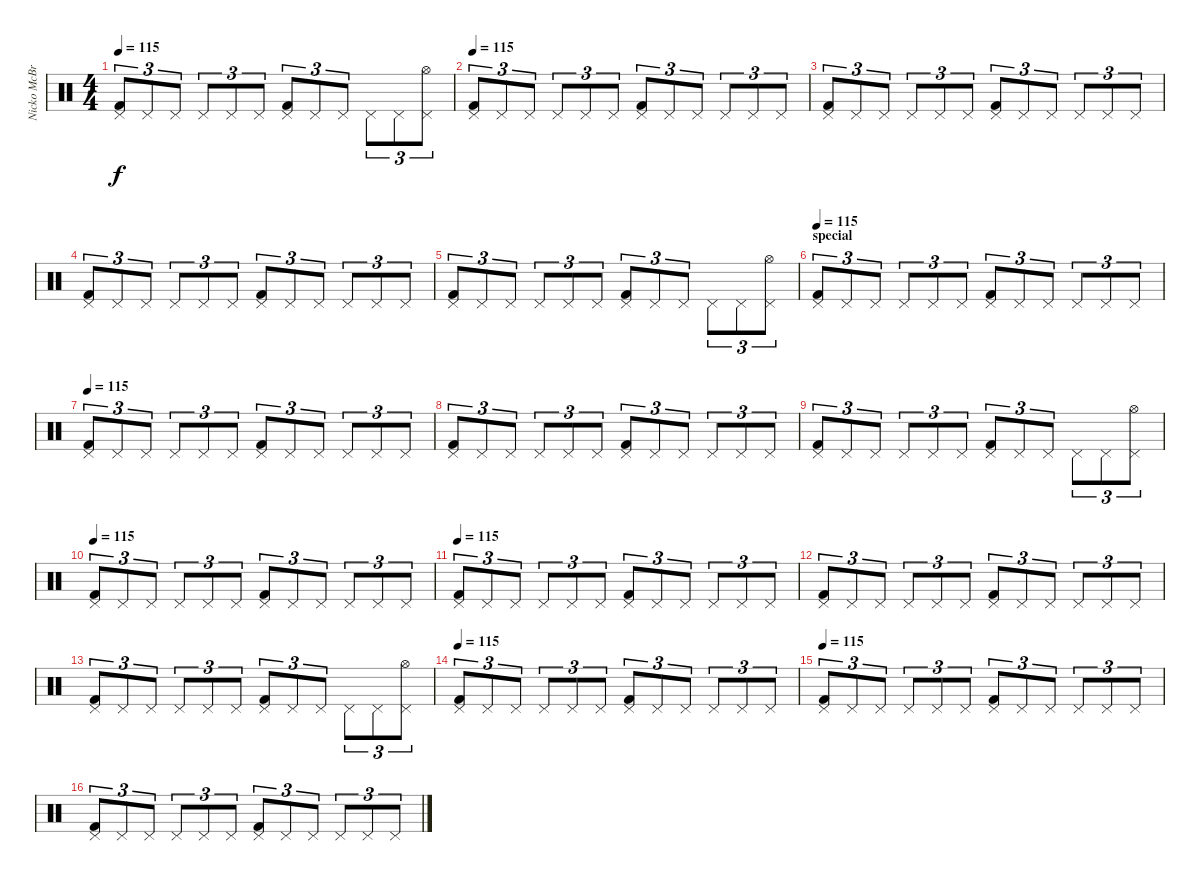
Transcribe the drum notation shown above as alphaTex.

\track ("Nicko McBrain" "Nicko McBr") {instrument percussion}
\staff {score}
\articulation defaults
\ts (4 4)
\tempo 115
\clef neutral
\ks c
("Pedal Hi-Hat (hit)" "Kick (hit) 2").8{tu (3 2) dy f} "Pedal Hi-Hat (hit)".8{tu (3 2)} "Pedal Hi-Hat (hit)".8{tu (3 2)} "Pedal Hi-Hat (hit)".8{tu (3 2)} "Pedal Hi-Hat (hit)".8{tu (3 2)} "Pedal Hi-Hat (hit)".8{tu (3 2)} ("Pedal Hi-Hat (hit)" "Kick (hit) 2").8{tu (3 2)} "Pedal Hi-Hat (hit)".8{tu (3 2)} "Pedal Hi-Hat (hit)".8{tu (3 2)} "Pedal Hi-Hat (hit)".8{tu (3 2)} "Pedal Hi-Hat (hit)".8{tu (3 2)} ("Pedal Hi-Hat (hit)" "Hi-Hat (open)").8{tu (3 2)} |
\tempo 115
("Pedal Hi-Hat (hit)" "Kick (hit) 2").8{tu (3 2)} "Pedal Hi-Hat (hit)".8{tu (3 2)} "Pedal Hi-Hat (hit)".8{tu (3 2)} "Pedal Hi-Hat (hit)".8{tu (3 2)} "Pedal Hi-Hat (hit)".8{tu (3 2)} "Pedal Hi-Hat (hit)".8{tu (3 2)} ("Pedal Hi-Hat (hit)" "Kick (hit) 2").8{tu (3 2)} "Pedal Hi-Hat (hit)".8{tu (3 2)} "Pedal Hi-Hat (hit)".8{tu (3 2)} "Pedal Hi-Hat (hit)".8{tu (3 2)} "Pedal Hi-Hat (hit)".8{tu (3 2)} "Pedal Hi-Hat (hit)".8{tu (3 2)} |
("Pedal Hi-Hat (hit)" "Kick (hit) 2").8{tu (3 2)} "Pedal Hi-Hat (hit)".8{tu (3 2)} "Pedal Hi-Hat (hit)".8{tu (3 2)} "Pedal Hi-Hat (hit)".8{tu (3 2)} "Pedal Hi-Hat (hit)".8{tu (3 2)} "Pedal Hi-Hat (hit)".8{tu (3 2)} ("Pedal Hi-Hat (hit)" "Kick (hit) 2").8{tu (3 2)} "Pedal Hi-Hat (hit)".8{tu (3 2)} "Pedal Hi-Hat (hit)".8{tu (3 2)} "Pedal Hi-Hat (hit)".8{tu (3 2)} "Pedal Hi-Hat (hit)".8{tu (3 2)} "Pedal Hi-Hat (hit)".8{tu (3 2)} |
("Pedal Hi-Hat (hit)" "Kick (hit) 2").8{tu (3 2)} "Pedal Hi-Hat (hit)".8{tu (3 2)} "Pedal Hi-Hat (hit)".8{tu (3 2)} "Pedal Hi-Hat (hit)".8{tu (3 2)} "Pedal Hi-Hat (hit)".8{tu (3 2)} "Pedal Hi-Hat (hit)".8{tu (3 2)} ("Pedal Hi-Hat (hit)" "Kick (hit) 2").8{tu (3 2)} "Pedal Hi-Hat (hit)".8{tu (3 2)} "Pedal Hi-Hat (hit)".8{tu (3 2)} "Pedal Hi-Hat (hit)".8{tu (3 2)} "Pedal Hi-Hat (hit)".8{tu (3 2)} "Pedal Hi-Hat (hit)".8{tu (3 2)} |
("Pedal Hi-Hat (hit)" "Kick (hit) 2").8{tu (3 2)} "Pedal Hi-Hat (hit)".8{tu (3 2)} "Pedal Hi-Hat (hit)".8{tu (3 2)} "Pedal Hi-Hat (hit)".8{tu (3 2)} "Pedal Hi-Hat (hit)".8{tu (3 2)} "Pedal Hi-Hat (hit)".8{tu (3 2)} ("Pedal Hi-Hat (hit)" "Kick (hit) 2").8{tu (3 2)} "Pedal Hi-Hat (hit)".8{tu (3 2)} "Pedal Hi-Hat (hit)".8{tu (3 2)} "Pedal Hi-Hat (hit)".8{tu (3 2)} "Pedal Hi-Hat (hit)".8{tu (3 2)} ("Pedal Hi-Hat (hit)" "Hi-Hat (open)").8{tu (3 2)} |
\section ("" "special")
\tempo 115
("Pedal Hi-Hat (hit)" "Kick (hit) 2").8{tu (3 2)} "Pedal Hi-Hat (hit)".8{tu (3 2)} "Pedal Hi-Hat (hit)".8{tu (3 2)} "Pedal Hi-Hat (hit)".8{tu (3 2)} "Pedal Hi-Hat (hit)".8{tu (3 2)} "Pedal Hi-Hat (hit)".8{tu (3 2)} ("Pedal Hi-Hat (hit)" "Kick (hit) 2").8{tu (3 2)} "Pedal Hi-Hat (hit)".8{tu (3 2)} "Pedal Hi-Hat (hit)".8{tu (3 2)} "Pedal Hi-Hat (hit)".8{tu (3 2)} "Pedal Hi-Hat (hit)".8{tu (3 2)} "Pedal Hi-Hat (hit)".8{tu (3 2)} |
\tempo 115
("Pedal Hi-Hat (hit)" "Kick (hit) 2").8{tu (3 2)} "Pedal Hi-Hat (hit)".8{tu (3 2)} "Pedal Hi-Hat (hit)".8{tu (3 2)} "Pedal Hi-Hat (hit)".8{tu (3 2)} "Pedal Hi-Hat (hit)".8{tu (3 2)} "Pedal Hi-Hat (hit)".8{tu (3 2)} ("Pedal Hi-Hat (hit)" "Kick (hit) 2").8{tu (3 2)} "Pedal Hi-Hat (hit)".8{tu (3 2)} "Pedal Hi-Hat (hit)".8{tu (3 2)} "Pedal Hi-Hat (hit)".8{tu (3 2)} "Pedal Hi-Hat (hit)".8{tu (3 2)} "Pedal Hi-Hat (hit)".8{tu (3 2)} |
("Pedal Hi-Hat (hit)" "Kick (hit) 2").8{tu (3 2)} "Pedal Hi-Hat (hit)".8{tu (3 2)} "Pedal Hi-Hat (hit)".8{tu (3 2)} "Pedal Hi-Hat (hit)".8{tu (3 2)} "Pedal Hi-Hat (hit)".8{tu (3 2)} "Pedal Hi-Hat (hit)".8{tu (3 2)} ("Pedal Hi-Hat (hit)" "Kick (hit) 2").8{tu (3 2)} "Pedal Hi-Hat (hit)".8{tu (3 2)} "Pedal Hi-Hat (hit)".8{tu (3 2)} "Pedal Hi-Hat (hit)".8{tu (3 2)} "Pedal Hi-Hat (hit)".8{tu (3 2)} "Pedal Hi-Hat (hit)".8{tu (3 2)} |
("Pedal Hi-Hat (hit)" "Kick (hit) 2").8{tu (3 2)} "Pedal Hi-Hat (hit)".8{tu (3 2)} "Pedal Hi-Hat (hit)".8{tu (3 2)} "Pedal Hi-Hat (hit)".8{tu (3 2)} "Pedal Hi-Hat (hit)".8{tu (3 2)} "Pedal Hi-Hat (hit)".8{tu (3 2)} ("Pedal Hi-Hat (hit)" "Kick (hit) 2").8{tu (3 2)} "Pedal Hi-Hat (hit)".8{tu (3 2)} "Pedal Hi-Hat (hit)".8{tu (3 2)} "Pedal Hi-Hat (hit)".8{tu (3 2)} "Pedal Hi-Hat (hit)".8{tu (3 2)} ("Pedal Hi-Hat (hit)" "Hi-Hat (open)").8{tu (3 2)} |
\tempo 115
("Pedal Hi-Hat (hit)" "Kick (hit) 2").8{tu (3 2)} "Pedal Hi-Hat (hit)".8{tu (3 2)} "Pedal Hi-Hat (hit)".8{tu (3 2)} "Pedal Hi-Hat (hit)".8{tu (3 2)} "Pedal Hi-Hat (hit)".8{tu (3 2)} "Pedal Hi-Hat (hit)".8{tu (3 2)} ("Pedal Hi-Hat (hit)" "Kick (hit) 2").8{tu (3 2)} "Pedal Hi-Hat (hit)".8{tu (3 2)} "Pedal Hi-Hat (hit)".8{tu (3 2)} "Pedal Hi-Hat (hit)".8{tu (3 2)} "Pedal Hi-Hat (hit)".8{tu (3 2)} "Pedal Hi-Hat (hit)".8{tu (3 2)} |
\tempo 115
("Pedal Hi-Hat (hit)" "Kick (hit) 2").8{tu (3 2)} "Pedal Hi-Hat (hit)".8{tu (3 2)} "Pedal Hi-Hat (hit)".8{tu (3 2)} "Pedal Hi-Hat (hit)".8{tu (3 2)} "Pedal Hi-Hat (hit)".8{tu (3 2)} "Pedal Hi-Hat (hit)".8{tu (3 2)} ("Pedal Hi-Hat (hit)" "Kick (hit) 2").8{tu (3 2)} "Pedal Hi-Hat (hit)".8{tu (3 2)} "Pedal Hi-Hat (hit)".8{tu (3 2)} "Pedal Hi-Hat (hit)".8{tu (3 2)} "Pedal Hi-Hat (hit)".8{tu (3 2)} "Pedal Hi-Hat (hit)".8{tu (3 2)} |
("Pedal Hi-Hat (hit)" "Kick (hit) 2").8{tu (3 2)} "Pedal Hi-Hat (hit)".8{tu (3 2)} "Pedal Hi-Hat (hit)".8{tu (3 2)} "Pedal Hi-Hat (hit)".8{tu (3 2)} "Pedal Hi-Hat (hit)".8{tu (3 2)} "Pedal Hi-Hat (hit)".8{tu (3 2)} ("Pedal Hi-Hat (hit)" "Kick (hit) 2").8{tu (3 2)} "Pedal Hi-Hat (hit)".8{tu (3 2)} "Pedal Hi-Hat (hit)".8{tu (3 2)} "Pedal Hi-Hat (hit)".8{tu (3 2)} "Pedal Hi-Hat (hit)".8{tu (3 2)} "Pedal Hi-Hat (hit)".8{tu (3 2)} |
("Pedal Hi-Hat (hit)" "Kick (hit) 2").8{tu (3 2)} "Pedal Hi-Hat (hit)".8{tu (3 2)} "Pedal Hi-Hat (hit)".8{tu (3 2)} "Pedal Hi-Hat (hit)".8{tu (3 2)} "Pedal Hi-Hat (hit)".8{tu (3 2)} "Pedal Hi-Hat (hit)".8{tu (3 2)} ("Pedal Hi-Hat (hit)" "Kick (hit) 2").8{tu (3 2)} "Pedal Hi-Hat (hit)".8{tu (3 2)} "Pedal Hi-Hat (hit)".8{tu (3 2)} "Pedal Hi-Hat (hit)".8{tu (3 2)} "Pedal Hi-Hat (hit)".8{tu (3 2)} ("Pedal Hi-Hat (hit)" "Hi-Hat (open)").8{tu (3 2)} |
\tempo 115
("Pedal Hi-Hat (hit)" "Kick (hit) 2").8{tu (3 2)} "Pedal Hi-Hat (hit)".8{tu (3 2)} "Pedal Hi-Hat (hit)".8{tu (3 2)} "Pedal Hi-Hat (hit)".8{tu (3 2)} "Pedal Hi-Hat (hit)".8{tu (3 2)} "Pedal Hi-Hat (hit)".8{tu (3 2)} ("Pedal Hi-Hat (hit)" "Kick (hit) 2").8{tu (3 2)} "Pedal Hi-Hat (hit)".8{tu (3 2)} "Pedal Hi-Hat (hit)".8{tu (3 2)} "Pedal Hi-Hat (hit)".8{tu (3 2)} "Pedal Hi-Hat (hit)".8{tu (3 2)} "Pedal Hi-Hat (hit)".8{tu (3 2)} |
\tempo 115
("Pedal Hi-Hat (hit)" "Kick (hit) 2").8{tu (3 2)} "Pedal Hi-Hat (hit)".8{tu (3 2)} "Pedal Hi-Hat (hit)".8{tu (3 2)} "Pedal Hi-Hat (hit)".8{tu (3 2)} "Pedal Hi-Hat (hit)".8{tu (3 2)} "Pedal Hi-Hat (hit)".8{tu (3 2)} ("Pedal Hi-Hat (hit)" "Kick (hit) 2").8{tu (3 2)} "Pedal Hi-Hat (hit)".8{tu (3 2)} "Pedal Hi-Hat (hit)".8{tu (3 2)} "Pedal Hi-Hat (hit)".8{tu (3 2)} "Pedal Hi-Hat (hit)".8{tu (3 2)} "Pedal Hi-Hat (hit)".8{tu (3 2)} |
("Pedal Hi-Hat (hit)" "Kick (hit) 2").8{tu (3 2)} "Pedal Hi-Hat (hit)".8{tu (3 2)} "Pedal Hi-Hat (hit)".8{tu (3 2)} "Pedal Hi-Hat (hit)".8{tu (3 2)} "Pedal Hi-Hat (hit)".8{tu (3 2)} "Pedal Hi-Hat (hit)".8{tu (3 2)} ("Pedal Hi-Hat (hit)" "Kick (hit) 2").8{tu (3 2)} "Pedal Hi-Hat (hit)".8{tu (3 2)} "Pedal Hi-Hat (hit)".8{tu (3 2)} "Pedal Hi-Hat (hit)".8{tu (3 2)} "Pedal Hi-Hat (hit)".8{tu (3 2)} "Pedal Hi-Hat (hit)".8{tu (3 2)}
